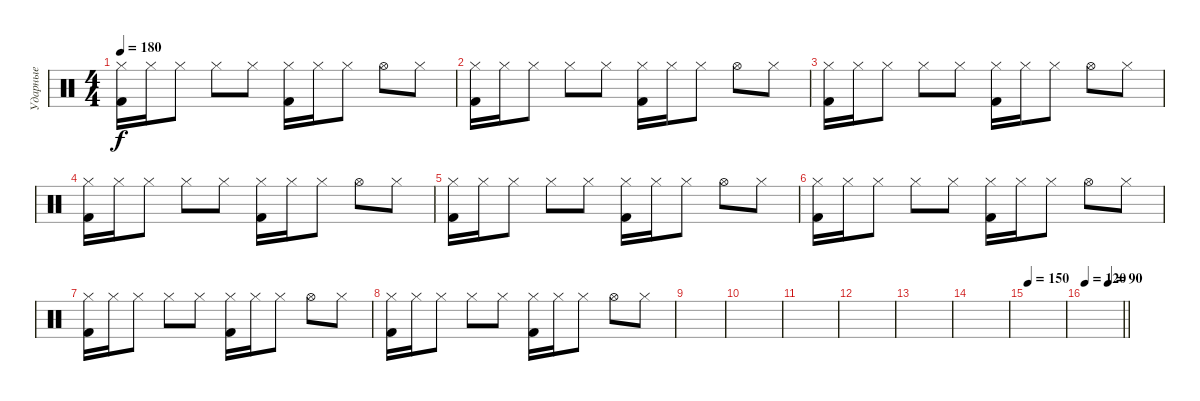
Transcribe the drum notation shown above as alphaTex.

\track ("Ударные" "Ударные") {instrument percussion}
\staff {score}
\articulation defaults
\ts (4 4)
\tempo 180
\clef neutral
\ks c
("Hi-Hat (closed)" "Kick (hit) 2").16{dy f volume 14} "Hi-Hat (closed)".16 "Hi-Hat (closed)".8 "Hi-Hat (closed)".8 "Hi-Hat (closed)".8 ("Hi-Hat (closed)" "Kick (hit) 2").16 "Hi-Hat (closed)".16 "Hi-Hat (closed)".8 "Hi-Hat (open)".8 "Hi-Hat (closed)".8 |
("Hi-Hat (closed)" "Kick (hit) 2").16{volume 13} "Hi-Hat (closed)".16 "Hi-Hat (closed)".8 "Hi-Hat (closed)".8 "Hi-Hat (closed)".8 ("Hi-Hat (closed)" "Kick (hit) 2").16 "Hi-Hat (closed)".16 "Hi-Hat (closed)".8 "Hi-Hat (open)".8 "Hi-Hat (closed)".8 |
("Hi-Hat (closed)" "Kick (hit) 2").16{volume 11} "Hi-Hat (closed)".16 "Hi-Hat (closed)".8 "Hi-Hat (closed)".8 "Hi-Hat (closed)".8 ("Hi-Hat (closed)" "Kick (hit) 2").16 "Hi-Hat (closed)".16 "Hi-Hat (closed)".8 "Hi-Hat (open)".8 "Hi-Hat (closed)".8 |
("Hi-Hat (closed)" "Kick (hit) 2").16{volume 10} "Hi-Hat (closed)".16 "Hi-Hat (closed)".8 "Hi-Hat (closed)".8 "Hi-Hat (closed)".8 ("Hi-Hat (closed)" "Kick (hit) 2").16 "Hi-Hat (closed)".16 "Hi-Hat (closed)".8 "Hi-Hat (open)".8 "Hi-Hat (closed)".8 |
("Hi-Hat (closed)" "Kick (hit) 2").16{volume 9} "Hi-Hat (closed)".16 "Hi-Hat (closed)".8 "Hi-Hat (closed)".8 "Hi-Hat (closed)".8 ("Hi-Hat (closed)" "Kick (hit) 2").16 "Hi-Hat (closed)".16 "Hi-Hat (closed)".8 "Hi-Hat (open)".8 "Hi-Hat (closed)".8 |
("Hi-Hat (closed)" "Kick (hit) 2").16{volume 7} "Hi-Hat (closed)".16 "Hi-Hat (closed)".8 "Hi-Hat (closed)".8 "Hi-Hat (closed)".8 ("Hi-Hat (closed)" "Kick (hit) 2").16{volume 6} "Hi-Hat (closed)".16 "Hi-Hat (closed)".8 "Hi-Hat (open)".8 "Hi-Hat (closed)".8 |
("Hi-Hat (closed)" "Kick (hit) 2").16{volume 5} "Hi-Hat (closed)".16 "Hi-Hat (closed)".8 "Hi-Hat (closed)".8 "Hi-Hat (closed)".8 ("Hi-Hat (closed)" "Kick (hit) 2").16{volume 4} "Hi-Hat (closed)".16 "Hi-Hat (closed)".8 "Hi-Hat (open)".8 "Hi-Hat (closed)".8 |
("Hi-Hat (closed)" "Kick (hit) 2").16{volume 3} "Hi-Hat (closed)".16 "Hi-Hat (closed)".8 "Hi-Hat (closed)".8 "Hi-Hat (closed)".8 ("Hi-Hat (closed)" "Kick (hit) 2").16{volume 2} "Hi-Hat (closed)".16 "Hi-Hat (closed)".8 "Hi-Hat (open)".8 "Hi-Hat (closed)".8 |
|
|
|
|
|
|
\tempo 150
|
\tempo 120
\tempo (90 0.625)
\barLineRight lightlight
